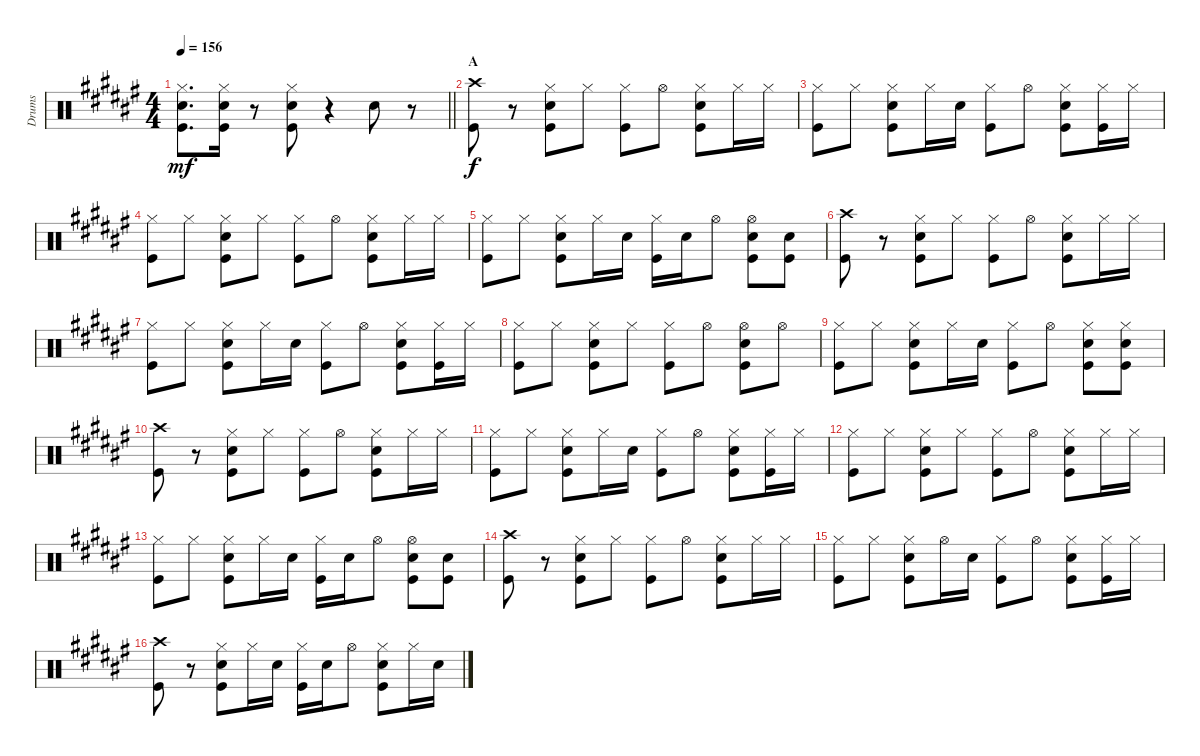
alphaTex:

\track ("Drums" "Drums") {instrument percussion}
\staff {score}
\articulation defaults
\ts (4 4)
\tempo 156
\clef neutral
\barLineRight lightlight
\ks f#
("Hi-Hat (closed)" "Snare (hit) 2" "Kick (hit)").8{d dy mf} ("Hi-Hat (closed)" "Snare (hit) 2" "Kick (hit)").16 r.8 ("Hi-Hat (closed)" "Snare (hit) 2" "Kick (hit)").8 r.4 "Snare (hit) 2".8 r.8 |
\section ("" "A")
("Crash high (hit)" "Kick (hit)").8{dy f} r.8 ("Hi-Hat (closed)" "Snare (hit) 2" "Kick (hit)").8 "Hi-Hat (closed)".8 ("Hi-Hat (closed)" "Kick (hit)").8 "Hi-Hat (open)".8 ("Hi-Hat (closed)" "Snare (hit) 2" "Kick (hit)").8 "Hi-Hat (closed)".16 "Hi-Hat (closed)".16 |
("Hi-Hat (closed)" "Kick (hit)").8 "Hi-Hat (closed)".8 ("Hi-Hat (closed)" "Snare (hit) 2" "Kick (hit)").8 "Hi-Hat (closed)".16 "Snare (hit) 2".16 ("Hi-Hat (closed)" "Kick (hit)").8 "Hi-Hat (open)".8 ("Hi-Hat (closed)" "Snare (hit) 2" "Kick (hit)").8 ("Hi-Hat (closed)" "Kick (hit)").16 "Hi-Hat (closed)".16 |
("Hi-Hat (closed)" "Kick (hit)").8 "Hi-Hat (closed)".8 ("Hi-Hat (closed)" "Snare (hit) 2" "Kick (hit)").8 "Hi-Hat (closed)".8 ("Hi-Hat (closed)" "Kick (hit)").8 "Hi-Hat (open)".8 ("Hi-Hat (closed)" "Snare (hit) 2" "Kick (hit)").8 "Hi-Hat (closed)".16 "Hi-Hat (closed)".16 |
("Hi-Hat (closed)" "Kick (hit)").8 "Hi-Hat (closed)".8 ("Hi-Hat (closed)" "Snare (hit) 2" "Kick (hit)").8 "Hi-Hat (closed)".16 "Snare (hit) 2".16 ("Hi-Hat (closed)" "Kick (hit)").16 "Snare (hit) 2".16 "Hi-Hat (open)".8 ("Hi-Hat (open)" "Snare (hit) 2" "Kick (hit)").8 ("Snare (hit) 2" "Kick (hit)").8 |
("Crash high (hit)" "Kick (hit)").8 r.8 ("Hi-Hat (closed)" "Snare (hit) 2" "Kick (hit)").8 "Hi-Hat (closed)".8 ("Hi-Hat (closed)" "Kick (hit)").8 "Hi-Hat (open)".8 ("Hi-Hat (closed)" "Snare (hit) 2" "Kick (hit)").8 "Hi-Hat (closed)".16 "Hi-Hat (closed)".16 |
("Hi-Hat (closed)" "Kick (hit)").8 "Hi-Hat (closed)".8 ("Hi-Hat (closed)" "Snare (hit) 2" "Kick (hit)").8 "Hi-Hat (closed)".16 "Snare (hit) 2".16 ("Hi-Hat (closed)" "Kick (hit)").8 "Hi-Hat (open)".8 ("Hi-Hat (closed)" "Snare (hit) 2" "Kick (hit)").8 ("Hi-Hat (closed)" "Kick (hit)").16 "Hi-Hat (closed)".16 |
("Hi-Hat (closed)" "Kick (hit)").8 "Hi-Hat (closed)".8 ("Hi-Hat (closed)" "Snare (hit) 2" "Kick (hit)").8 "Hi-Hat (closed)".8 ("Hi-Hat (closed)" "Kick (hit)").8 "Hi-Hat (open)".8 ("Hi-Hat (open)" "Snare (hit) 2" "Kick (hit)").8 "Hi-Hat (open)".8 |
("Hi-Hat (closed)" "Kick (hit)").8 "Hi-Hat (closed)".8 ("Hi-Hat (closed)" "Snare (hit) 2" "Kick (hit)").8 "Hi-Hat (closed)".16 "Snare (hit) 2".16 ("Hi-Hat (closed)" "Kick (hit)").8 "Hi-Hat (open)".8 ("Hi-Hat (closed)" "Snare (hit) 2" "Kick (hit)").8 ("Hi-Hat (closed)" "Snare (hit) 2" "Kick (hit)").8 |
("Crash high (hit)" "Kick (hit)").8 r.8 ("Hi-Hat (closed)" "Snare (hit) 2" "Kick (hit)").8 "Hi-Hat (closed)".8 ("Hi-Hat (closed)" "Kick (hit)").8 "Hi-Hat (open)".8 ("Hi-Hat (closed)" "Snare (hit) 2" "Kick (hit)").8 "Hi-Hat (closed)".16 "Hi-Hat (closed)".16 |
("Hi-Hat (closed)" "Kick (hit)").8 "Hi-Hat (closed)".8 ("Hi-Hat (closed)" "Snare (hit) 2" "Kick (hit)").8 "Hi-Hat (closed)".16 "Snare (hit) 2".16 ("Hi-Hat (closed)" "Kick (hit)").8 "Hi-Hat (open)".8 ("Hi-Hat (closed)" "Snare (hit) 2" "Kick (hit)").8 ("Hi-Hat (closed)" "Kick (hit)").16 "Hi-Hat (closed)".16 |
("Hi-Hat (closed)" "Kick (hit)").8 "Hi-Hat (closed)".8 ("Hi-Hat (closed)" "Snare (hit) 2" "Kick (hit)").8 "Hi-Hat (closed)".8 ("Hi-Hat (closed)" "Kick (hit)").8 "Hi-Hat (open)".8 ("Hi-Hat (closed)" "Snare (hit) 2" "Kick (hit)").8 "Hi-Hat (closed)".16 "Hi-Hat (closed)".16 |
("Hi-Hat (closed)" "Kick (hit)").8 "Hi-Hat (closed)".8 ("Hi-Hat (closed)" "Snare (hit) 2" "Kick (hit)").8 "Hi-Hat (closed)".16 "Snare (hit) 2".16 ("Hi-Hat (closed)" "Kick (hit)").16 "Snare (hit) 2".16 "Hi-Hat (open)".8 ("Hi-Hat (open)" "Snare (hit) 2" "Kick (hit)").8 ("Snare (hit) 2" "Kick (hit)").8 |
("Crash high (hit)" "Kick (hit)").8 r.8 ("Hi-Hat (closed)" "Snare (hit) 2" "Kick (hit)").8 "Hi-Hat (closed)".8 ("Hi-Hat (closed)" "Kick (hit)").8 "Hi-Hat (open)".8 ("Hi-Hat (closed)" "Snare (hit) 2" "Kick (hit)").8 "Hi-Hat (closed)".16 "Hi-Hat (closed)".16 |
("Hi-Hat (closed)" "Kick (hit)").8 "Hi-Hat (closed)".8 ("Hi-Hat (closed)" "Snare (hit) 2" "Kick (hit)").8 "Hi-Hat (open)".16 "Snare (hit) 2".16 ("Hi-Hat (closed)" "Kick (hit)").8 "Hi-Hat (open)".8 ("Hi-Hat (closed)" "Snare (hit) 2" "Kick (hit)").8 ("Hi-Hat (closed)" "Kick (hit)").16 "Hi-Hat (closed)".16 |
("Crash high (hit)" "Kick (hit)").8 r.8 ("Hi-Hat (closed)" "Snare (hit) 2" "Kick (hit)").8 "Hi-Hat (closed)".16 "Snare (hit) 2".16 ("Hi-Hat (closed)" "Kick (hit)").16 "Snare (hit) 2".16 "Hi-Hat (open)".8 ("Hi-Hat (closed)" "Snare (hit) 2" "Kick (hit)").8 "Hi-Hat (closed)".16 "Snare (hit) 2".16
